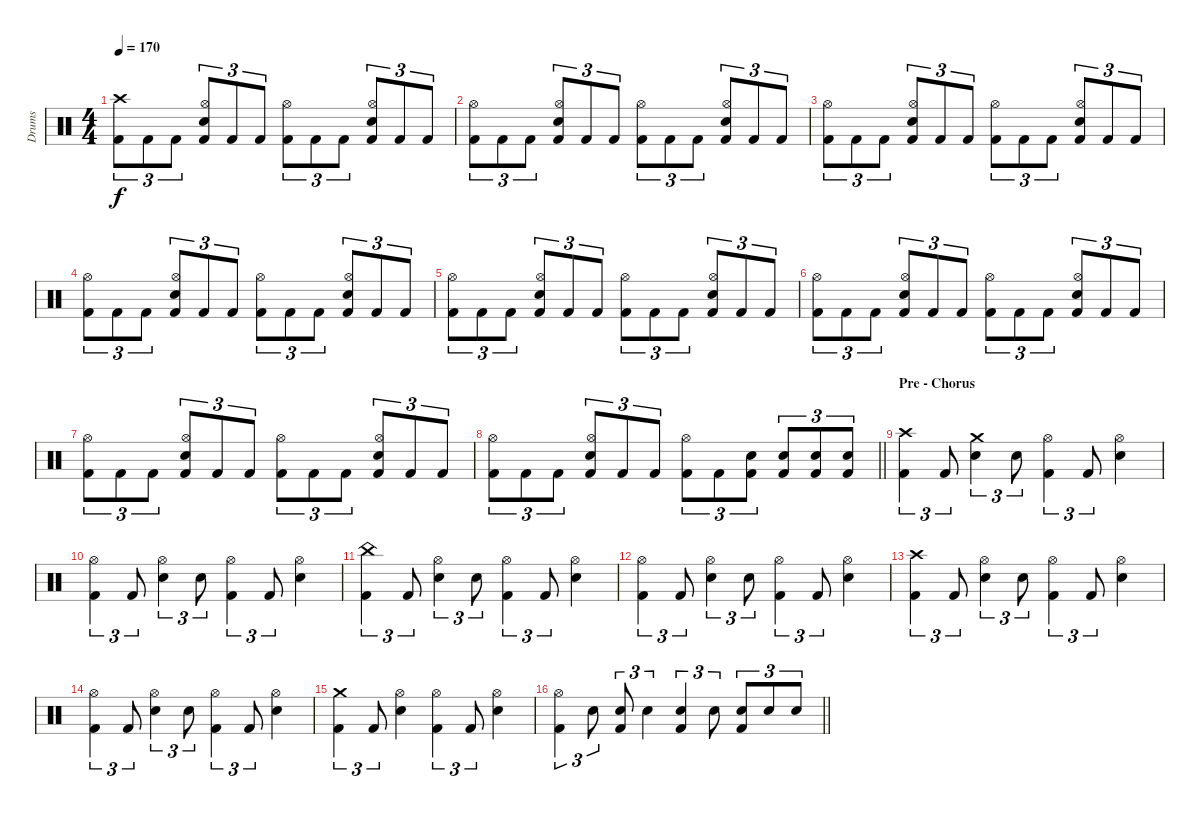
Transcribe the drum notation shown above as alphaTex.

\track ("Drums" "Drums") {instrument percussion}
\staff {score}
\articulation defaults
\ts (4 4)
\tempo 170
\clef neutral
\ks c
("Crash high (hit)" "Kick (hit) 2").8{tu (3 2) dy f} "Kick (hit) 2".8{tu (3 2)} "Kick (hit) 2".8{tu (3 2)} ("Hi-Hat (open)" "Electric Snare (hit)" "Kick (hit) 2").8{tu (3 2)} "Kick (hit) 2".8{tu (3 2)} "Kick (hit) 2".8{tu (3 2)} ("Hi-Hat (open)" "Kick (hit) 2").8{tu (3 2)} "Kick (hit) 2".8{tu (3 2)} "Kick (hit) 2".8{tu (3 2)} ("Hi-Hat (open)" "Electric Snare (hit)" "Kick (hit) 2").8{tu (3 2)} "Kick (hit) 2".8{tu (3 2)} "Kick (hit) 2".8{tu (3 2)} |
("Hi-Hat (open)" "Kick (hit) 2").8{tu (3 2)} "Kick (hit) 2".8{tu (3 2)} "Kick (hit) 2".8{tu (3 2)} ("Hi-Hat (open)" "Electric Snare (hit)" "Kick (hit) 2").8{tu (3 2)} "Kick (hit) 2".8{tu (3 2)} "Kick (hit) 2".8{tu (3 2)} ("Hi-Hat (open)" "Kick (hit) 2").8{tu (3 2)} "Kick (hit) 2".8{tu (3 2)} "Kick (hit) 2".8{tu (3 2)} ("Hi-Hat (open)" "Electric Snare (hit)" "Kick (hit) 2").8{tu (3 2)} "Kick (hit) 2".8{tu (3 2)} "Kick (hit) 2".8{tu (3 2)} |
("Hi-Hat (open)" "Kick (hit) 2").8{tu (3 2)} "Kick (hit) 2".8{tu (3 2)} "Kick (hit) 2".8{tu (3 2)} ("Hi-Hat (open)" "Electric Snare (hit)" "Kick (hit) 2").8{tu (3 2)} "Kick (hit) 2".8{tu (3 2)} "Kick (hit) 2".8{tu (3 2)} ("Hi-Hat (open)" "Kick (hit) 2").8{tu (3 2)} "Kick (hit) 2".8{tu (3 2)} "Kick (hit) 2".8{tu (3 2)} ("Hi-Hat (open)" "Electric Snare (hit)" "Kick (hit) 2").8{tu (3 2)} "Kick (hit) 2".8{tu (3 2)} "Kick (hit) 2".8{tu (3 2)} |
("Hi-Hat (open)" "Kick (hit) 2").8{tu (3 2)} "Kick (hit) 2".8{tu (3 2)} "Kick (hit) 2".8{tu (3 2)} ("Hi-Hat (open)" "Electric Snare (hit)" "Kick (hit) 2").8{tu (3 2)} "Kick (hit) 2".8{tu (3 2)} "Kick (hit) 2".8{tu (3 2)} ("Hi-Hat (open)" "Kick (hit) 2").8{tu (3 2)} "Kick (hit) 2".8{tu (3 2)} "Kick (hit) 2".8{tu (3 2)} ("Hi-Hat (open)" "Electric Snare (hit)" "Kick (hit) 2").8{tu (3 2)} "Kick (hit) 2".8{tu (3 2)} "Kick (hit) 2".8{tu (3 2)} |
("Hi-Hat (open)" "Kick (hit) 2").8{tu (3 2)} "Kick (hit) 2".8{tu (3 2)} "Kick (hit) 2".8{tu (3 2)} ("Hi-Hat (open)" "Electric Snare (hit)" "Kick (hit) 2").8{tu (3 2)} "Kick (hit) 2".8{tu (3 2)} "Kick (hit) 2".8{tu (3 2)} ("Hi-Hat (open)" "Kick (hit) 2").8{tu (3 2)} "Kick (hit) 2".8{tu (3 2)} "Kick (hit) 2".8{tu (3 2)} ("Hi-Hat (open)" "Electric Snare (hit)" "Kick (hit) 2").8{tu (3 2)} "Kick (hit) 2".8{tu (3 2)} "Kick (hit) 2".8{tu (3 2)} |
("Hi-Hat (open)" "Kick (hit) 2").8{tu (3 2)} "Kick (hit) 2".8{tu (3 2)} "Kick (hit) 2".8{tu (3 2)} ("Hi-Hat (open)" "Electric Snare (hit)" "Kick (hit) 2").8{tu (3 2)} "Kick (hit) 2".8{tu (3 2)} "Kick (hit) 2".8{tu (3 2)} ("Hi-Hat (open)" "Kick (hit) 2").8{tu (3 2)} "Kick (hit) 2".8{tu (3 2)} "Kick (hit) 2".8{tu (3 2)} ("Hi-Hat (open)" "Electric Snare (hit)" "Kick (hit) 2").8{tu (3 2)} "Kick (hit) 2".8{tu (3 2)} "Kick (hit) 2".8{tu (3 2)} |
("Hi-Hat (open)" "Kick (hit) 2").8{tu (3 2)} "Kick (hit) 2".8{tu (3 2)} "Kick (hit) 2".8{tu (3 2)} ("Hi-Hat (open)" "Electric Snare (hit)" "Kick (hit) 2").8{tu (3 2)} "Kick (hit) 2".8{tu (3 2)} "Kick (hit) 2".8{tu (3 2)} ("Hi-Hat (open)" "Kick (hit) 2").8{tu (3 2)} "Kick (hit) 2".8{tu (3 2)} "Kick (hit) 2".8{tu (3 2)} ("Hi-Hat (open)" "Electric Snare (hit)" "Kick (hit) 2").8{tu (3 2)} "Kick (hit) 2".8{tu (3 2)} "Kick (hit) 2".8{tu (3 2)} |
\barLineRight lightlight
("Hi-Hat (open)" "Kick (hit) 2").8{tu (3 2)} "Kick (hit) 2".8{tu (3 2)} "Kick (hit) 2".8{tu (3 2)} ("Hi-Hat (open)" "Electric Snare (hit)" "Kick (hit) 2").8{tu (3 2)} "Kick (hit) 2".8{tu (3 2)} "Kick (hit) 2".8{tu (3 2)} ("Hi-Hat (open)" "Kick (hit) 2").8{tu (3 2)} "Kick (hit) 2".8{tu (3 2)} ("Electric Snare (hit)" "Kick (hit) 2").8{tu (3 2)} ("Electric Snare (hit)" "Kick (hit) 2").8{tu (3 2)} ("Electric Snare (hit)" "Kick (hit) 2").8{tu (3 2)} ("Electric Snare (hit)" "Kick (hit) 2").8{tu (3 2)} |
\section ("" "Pre - Chorus")
("Crash high (hit)" "Kick (hit) 2").4{tu (3 2)} "Kick (hit) 2".8{tu (3 2)} ("Crash medium (hit)" "Electric Snare (hit)").4{tu (3 2)} "Electric Snare (hit)".8{tu (3 2)} ("Hi-Hat (open)" "Kick (hit) 2").4{tu (3 2)} "Kick (hit) 2".8{tu (3 2)} ("Hi-Hat (open)" "Electric Snare (hit)").4 |
("Hi-Hat (open)" "Kick (hit) 2").4{tu (3 2)} "Kick (hit) 2".8{tu (3 2)} ("Hi-Hat (open)" "Electric Snare (hit)").4{tu (3 2)} "Electric Snare (hit)".8{tu (3 2)} ("Hi-Hat (open)" "Kick (hit) 2").4{tu (3 2)} "Kick (hit) 2".8{tu (3 2)} ("Hi-Hat (open)" "Electric Snare (hit)").4 |
("China (hit)" "Kick (hit) 2").4{tu (3 2)} "Kick (hit) 2".8{tu (3 2)} ("Hi-Hat (open)" "Electric Snare (hit)").4{tu (3 2)} "Electric Snare (hit)".8{tu (3 2)} ("Hi-Hat (open)" "Kick (hit) 2").4{tu (3 2)} "Kick (hit) 2".8{tu (3 2)} ("Hi-Hat (open)" "Electric Snare (hit)").4 |
("Hi-Hat (open)" "Kick (hit) 2").4{tu (3 2)} "Kick (hit) 2".8{tu (3 2)} ("Hi-Hat (open)" "Electric Snare (hit)").4{tu (3 2)} "Electric Snare (hit)".8{tu (3 2)} ("Hi-Hat (open)" "Kick (hit) 2").4{tu (3 2)} "Kick (hit) 2".8{tu (3 2)} ("Hi-Hat (open)" "Electric Snare (hit)").4 |
("Crash high (hit)" "Kick (hit) 2").4{tu (3 2)} "Kick (hit) 2".8{tu (3 2)} ("Hi-Hat (open)" "Electric Snare (hit)").4{tu (3 2)} "Electric Snare (hit)".8{tu (3 2)} ("Hi-Hat (open)" "Kick (hit) 2").4{tu (3 2)} "Kick (hit) 2".8{tu (3 2)} ("Hi-Hat (open)" "Electric Snare (hit)").4 |
("Hi-Hat (open)" "Kick (hit) 2").4{tu (3 2)} "Kick (hit) 2".8{tu (3 2)} ("Hi-Hat (open)" "Electric Snare (hit)").4{tu (3 2)} "Electric Snare (hit)".8{tu (3 2)} ("Hi-Hat (open)" "Kick (hit) 2").4{tu (3 2)} "Kick (hit) 2".8{tu (3 2)} ("Hi-Hat (open)" "Electric Snare (hit)").4 |
("Crash medium (hit)" "Kick (hit) 2").4{tu (3 2)} "Kick (hit) 2".8{tu (3 2)} ("Hi-Hat (open)" "Electric Snare (hit)").4 ("Hi-Hat (open)" "Kick (hit) 2").4{tu (3 2)} "Kick (hit) 2".8{tu (3 2)} ("Hi-Hat (open)" "Electric Snare (hit)").4 |
\barLineRight lightlight
("Hi-Hat (open)" "Kick (hit) 2").4{tu (3 2)} "Electric Snare (hit)".8{tu (3 2)} ("Electric Snare (hit)" "Kick (hit) 2").8{tu (3 2)} "Electric Snare (hit)".4{tu (3 2)} ("Electric Snare (hit)" "Kick (hit) 2").4{tu (3 2)} "Electric Snare (hit)".8{tu (3 2)} ("Electric Snare (hit)" "Kick (hit) 2").8{tu (3 2)} "Electric Snare (hit)".8{tu (3 2)} "Electric Snare (hit)".8{tu (3 2)}
